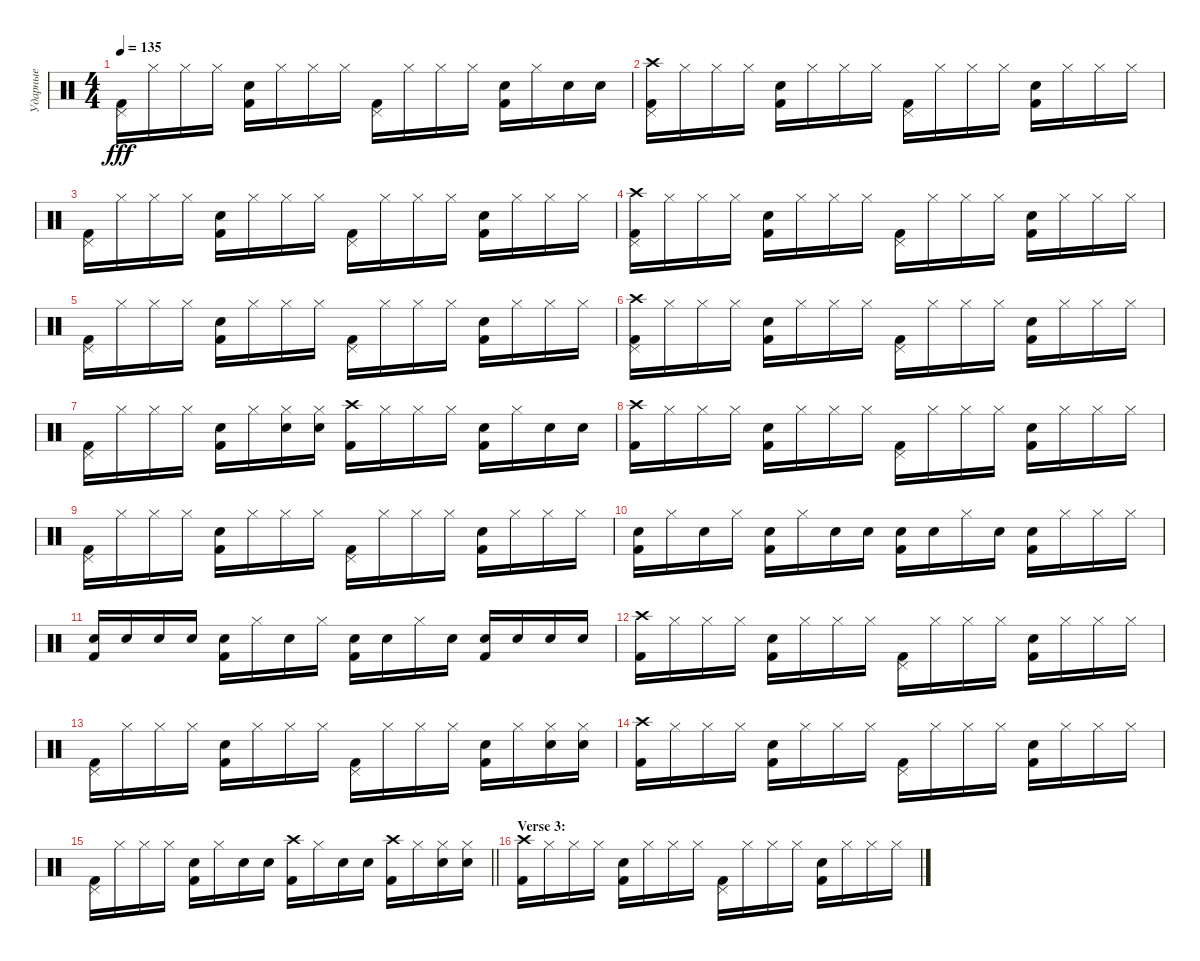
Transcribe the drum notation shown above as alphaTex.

\track ("Ударные" "Ударные") {instrument percussion}
\staff {score}
\articulation defaults
\ts (4 4)
\tempo 135
\clef neutral
\ks c
("Pedal Hi-Hat (hit)" "Kick (hit) 2").16{dy fff} "Hi-Hat (closed)".16 "Hi-Hat (closed)".16 "Hi-Hat (closed)".16 ("Snare (hit) 2" "Kick (hit) 2").16 "Hi-Hat (closed)".16 "Hi-Hat (closed)".16 "Hi-Hat (closed)".16 ("Pedal Hi-Hat (hit)" "Kick (hit) 2").16 "Hi-Hat (closed)".16 "Hi-Hat (closed)".16 "Hi-Hat (closed)".16 ("Snare (hit) 2" "Kick (hit) 2").16 "Hi-Hat (closed)".16 "Snare (hit) 2".16 "Snare (hit) 2".16 |
("Pedal Hi-Hat (hit)" "Crash high (hit)" "Kick (hit) 2").16 "Hi-Hat (closed)".16 "Hi-Hat (closed)".16 "Hi-Hat (closed)".16 ("Snare (hit) 2" "Kick (hit) 2").16 "Hi-Hat (closed)".16 "Hi-Hat (closed)".16 "Hi-Hat (closed)".16 ("Pedal Hi-Hat (hit)" "Kick (hit) 2").16 "Hi-Hat (closed)".16 "Hi-Hat (closed)".16 "Hi-Hat (closed)".16 ("Snare (hit) 2" "Kick (hit) 2").16 "Hi-Hat (closed)".16 "Hi-Hat (closed)".16 "Hi-Hat (closed)".16 |
("Pedal Hi-Hat (hit)" "Kick (hit) 2").16 "Hi-Hat (closed)".16 "Hi-Hat (closed)".16 "Hi-Hat (closed)".16 ("Snare (hit) 2" "Kick (hit) 2").16 "Hi-Hat (closed)".16 "Hi-Hat (closed)".16 "Hi-Hat (closed)".16 ("Pedal Hi-Hat (hit)" "Kick (hit) 2").16 "Hi-Hat (closed)".16 "Hi-Hat (closed)".16 "Hi-Hat (closed)".16 ("Snare (hit) 2" "Kick (hit) 2").16 "Hi-Hat (closed)".16 "Hi-Hat (closed)".16 "Hi-Hat (closed)".16 |
("Pedal Hi-Hat (hit)" "Crash high (hit)" "Kick (hit) 2").16 "Hi-Hat (closed)".16 "Hi-Hat (closed)".16 "Hi-Hat (closed)".16 ("Snare (hit) 2" "Kick (hit) 2").16 "Hi-Hat (closed)".16 "Hi-Hat (closed)".16 "Hi-Hat (closed)".16 ("Pedal Hi-Hat (hit)" "Kick (hit) 2").16 "Hi-Hat (closed)".16 "Hi-Hat (closed)".16 "Hi-Hat (closed)".16 ("Snare (hit) 2" "Kick (hit) 2").16 "Hi-Hat (closed)".16 "Hi-Hat (closed)".16 "Hi-Hat (closed)".16 |
("Pedal Hi-Hat (hit)" "Kick (hit) 2").16 "Hi-Hat (closed)".16 "Hi-Hat (closed)".16 "Hi-Hat (closed)".16 ("Snare (hit) 2" "Kick (hit) 2").16 "Hi-Hat (closed)".16 "Hi-Hat (closed)".16 "Hi-Hat (closed)".16 ("Pedal Hi-Hat (hit)" "Kick (hit) 2").16 "Hi-Hat (closed)".16 "Hi-Hat (closed)".16 "Hi-Hat (closed)".16 ("Snare (hit) 2" "Kick (hit) 2").16 "Hi-Hat (closed)".16 "Hi-Hat (closed)".16 "Hi-Hat (closed)".16 |
("Pedal Hi-Hat (hit)" "Crash high (hit)" "Kick (hit) 2").16 "Hi-Hat (closed)".16 "Hi-Hat (closed)".16 "Hi-Hat (closed)".16 ("Snare (hit) 2" "Kick (hit) 2").16 "Hi-Hat (closed)".16 "Hi-Hat (closed)".16 "Hi-Hat (closed)".16 ("Pedal Hi-Hat (hit)" "Kick (hit) 2").16 "Hi-Hat (closed)".16 "Hi-Hat (closed)".16 "Hi-Hat (closed)".16 ("Snare (hit) 2" "Kick (hit) 2").16 "Hi-Hat (closed)".16 "Hi-Hat (closed)".16 "Hi-Hat (closed)".16 |
("Pedal Hi-Hat (hit)" "Kick (hit) 2").16 "Hi-Hat (closed)".16 "Hi-Hat (closed)".16 "Hi-Hat (closed)".16 ("Snare (hit) 2" "Kick (hit) 2").16 "Hi-Hat (closed)".16 ("Hi-Hat (closed)" "Snare (hit) 2").16 ("Hi-Hat (closed)" "Snare (hit) 2").16 ("Crash high (hit)" "Kick (hit) 2").16 "Hi-Hat (closed)".16 "Hi-Hat (closed)".16 "Hi-Hat (closed)".16 ("Snare (hit) 2" "Kick (hit) 2").16 "Hi-Hat (closed)".16 "Snare (hit) 2".16 "Snare (hit) 2".16 |
("Crash high (hit)" "Kick (hit) 2").16 "Hi-Hat (closed)".16 "Hi-Hat (closed)".16 "Hi-Hat (closed)".16 ("Snare (hit) 2" "Kick (hit) 2").16 "Hi-Hat (closed)".16 "Hi-Hat (closed)".16 "Hi-Hat (closed)".16 ("Pedal Hi-Hat (hit)" "Kick (hit) 2").16 "Hi-Hat (closed)".16 "Hi-Hat (closed)".16 "Hi-Hat (closed)".16 ("Snare (hit) 2" "Kick (hit) 2").16 "Hi-Hat (closed)".16 "Hi-Hat (closed)".16 "Hi-Hat (closed)".16 |
("Pedal Hi-Hat (hit)" "Kick (hit) 2").16 "Hi-Hat (closed)".16 "Hi-Hat (closed)".16 "Hi-Hat (closed)".16 ("Snare (hit) 2" "Kick (hit) 2").16 "Hi-Hat (closed)".16 "Hi-Hat (closed)".16 "Hi-Hat (closed)".16 ("Pedal Hi-Hat (hit)" "Kick (hit) 2").16 "Hi-Hat (closed)".16 "Hi-Hat (closed)".16 "Hi-Hat (closed)".16 ("Snare (hit) 2" "Kick (hit) 2").16 "Hi-Hat (closed)".16 "Hi-Hat (closed)".16 "Hi-Hat (closed)".16 |
("Snare (hit) 2" "Kick (hit) 2").16 "Hi-Hat (closed)".16 "Snare (hit) 2".16 "Hi-Hat (closed)".16 ("Snare (hit) 2" "Kick (hit) 2").16 "Hi-Hat (closed)".16 "Snare (hit) 2".16 "Snare (hit) 2".16 ("Snare (hit) 2" "Kick (hit) 2").16 "Snare (hit) 2".16 "Hi-Hat (closed)".16 "Snare (hit) 2".16 ("Snare (hit) 2" "Kick (hit) 2").16 "Hi-Hat (closed)".16 "Hi-Hat (closed)".16 "Hi-Hat (closed)".16 |
("Snare (hit) 2" "Kick (hit) 2").16 "Snare (hit) 2".16 "Snare (hit) 2".16 "Snare (hit) 2".16 ("Snare (hit) 2" "Kick (hit) 2").16 "Hi-Hat (closed)".16 "Snare (hit) 2".16 "Hi-Hat (closed)".16 ("Snare (hit) 2" "Kick (hit) 2").16 "Snare (hit) 2".16 "Hi-Hat (closed)".16 "Snare (hit) 2".16 ("Snare (hit) 2" "Kick (hit) 2").16 "Snare (hit) 2".16 "Snare (hit) 2".16 "Snare (hit) 2".16 |
("Crash high (hit)" "Kick (hit) 2").16 "Hi-Hat (closed)".16 "Hi-Hat (closed)".16 "Hi-Hat (closed)".16 ("Snare (hit) 2" "Kick (hit) 2").16 "Hi-Hat (closed)".16 "Hi-Hat (closed)".16 "Hi-Hat (closed)".16 ("Pedal Hi-Hat (hit)" "Kick (hit) 2").16 "Hi-Hat (closed)".16 "Hi-Hat (closed)".16 "Hi-Hat (closed)".16 ("Snare (hit) 2" "Kick (hit) 2").16 "Hi-Hat (closed)".16 "Hi-Hat (closed)".16 "Hi-Hat (closed)".16 |
("Pedal Hi-Hat (hit)" "Kick (hit) 2").16 "Hi-Hat (closed)".16 "Hi-Hat (closed)".16 "Hi-Hat (closed)".16 ("Snare (hit) 2" "Kick (hit) 2").16 "Hi-Hat (closed)".16 "Hi-Hat (closed)".16 "Hi-Hat (closed)".16 ("Pedal Hi-Hat (hit)" "Kick (hit) 2").16 "Hi-Hat (closed)".16 "Hi-Hat (closed)".16 "Hi-Hat (closed)".16 ("Snare (hit) 2" "Kick (hit) 2").16 "Hi-Hat (closed)".16 ("Hi-Hat (closed)" "Snare (hit) 2").16 ("Hi-Hat (closed)" "Snare (hit) 2").16 |
("Crash high (hit)" "Kick (hit) 2").16 "Hi-Hat (closed)".16 "Hi-Hat (closed)".16 "Hi-Hat (closed)".16 ("Snare (hit) 2" "Kick (hit) 2").16 "Hi-Hat (closed)".16 "Hi-Hat (closed)".16 "Hi-Hat (closed)".16 ("Pedal Hi-Hat (hit)" "Kick (hit) 2").16 "Hi-Hat (closed)".16 "Hi-Hat (closed)".16 "Hi-Hat (closed)".16 ("Snare (hit) 2" "Kick (hit) 2").16 "Hi-Hat (closed)".16 "Hi-Hat (closed)".16 "Hi-Hat (closed)".16 |
\barLineRight lightlight
("Pedal Hi-Hat (hit)" "Kick (hit) 2").16 "Hi-Hat (closed)".16 "Hi-Hat (closed)".16 "Hi-Hat (closed)".16 ("Snare (hit) 2" "Kick (hit) 2").16 "Hi-Hat (closed)".16 "Snare (hit) 2".16 "Snare (hit) 2".16 ("Crash high (hit)" "Kick (hit) 2").16 "Hi-Hat (closed)".16 "Snare (hit) 2".16 "Snare (hit) 2".16 ("Crash high (hit)" "Kick (hit) 2").16 "Hi-Hat (closed)".16 ("Hi-Hat (closed)" "Snare (hit) 2").16 ("Hi-Hat (closed)" "Snare (hit) 2").16 |
\section ("" "Verse 3:")
("Crash high (hit)" "Kick (hit) 2").16 "Hi-Hat (closed)".16 "Hi-Hat (closed)".16 "Hi-Hat (closed)".16 ("Snare (hit) 2" "Kick (hit) 2").16 "Hi-Hat (closed)".16 "Hi-Hat (closed)".16 "Hi-Hat (closed)".16 ("Pedal Hi-Hat (hit)" "Kick (hit) 2").16 "Hi-Hat (closed)".16 "Hi-Hat (closed)".16 "Hi-Hat (closed)".16 ("Snare (hit) 2" "Kick (hit) 2").16 "Hi-Hat (closed)".16 "Hi-Hat (closed)".16 "Hi-Hat (closed)".16
